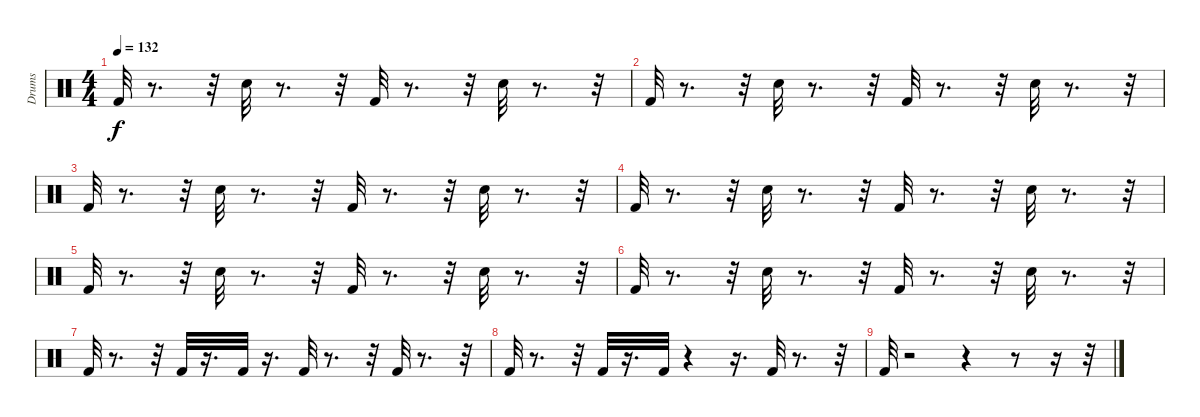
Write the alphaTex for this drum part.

\track ("Drums" "Drums") {instrument percussion}
\staff {score}
\articulation defaults
\ts (4 4)
\tempo 132
\clef neutral
\ks c "Kick (hit) 2".32{dy f}
r.8{d} r.32 "Snare (hit) 2".32 r.8{d} r.32 "Kick (hit) 2".32 r.8{d} r.32 "Snare (hit) 2".32 r.8{d} r.32 |
"Kick (hit) 2".32 r.8{d} r.32 "Snare (hit) 2".32 r.8{d} r.32 "Kick (hit) 2".32 r.8{d} r.32 "Snare (hit) 2".32 r.8{d} r.32 |
"Kick (hit) 2".32 r.8{d} r.32 "Snare (hit) 2".32 r.8{d} r.32 "Kick (hit) 2".32 r.8{d} r.32 "Snare (hit) 2".32 r.8{d} r.32 |
"Kick (hit) 2".32 r.8{d} r.32 "Snare (hit) 2".32 r.8{d} r.32 "Kick (hit) 2".32 r.8{d} r.32 "Snare (hit) 2".32 r.8{d} r.32 |
"Kick (hit) 2".32 r.8{d} r.32 "Snare (hit) 2".32 r.8{d} r.32 "Kick (hit) 2".32 r.8{d} r.32 "Snare (hit) 2".32 r.8{d} r.32 |
"Kick (hit) 2".32 r.8{d} r.32 "Snare (hit) 2".32 r.8{d} r.32 "Kick (hit) 2".32 r.8{d} r.32 "Snare (hit) 2".32 r.8{d} r.32 |
"Kick (hit) 2".32 r.8{d} r.32 "Kick (hit) 2".32 r.16{d} "Kick (hit) 2".32 r.16{d} "Kick (hit) 2".32 r.8{d} r.32 "Kick (hit) 2".32 r.8{d} r.32 |
"Kick (hit) 2".32 r.8{d} r.32 "Kick (hit) 2".32 r.16{d} "Kick (hit) 2".32 r.4 r.16{d} "Kick (hit) 2".32 r.8{d} r.32 |
"Kick (hit) 2".32 r.2 r.4 r.8 r.16 r.32
